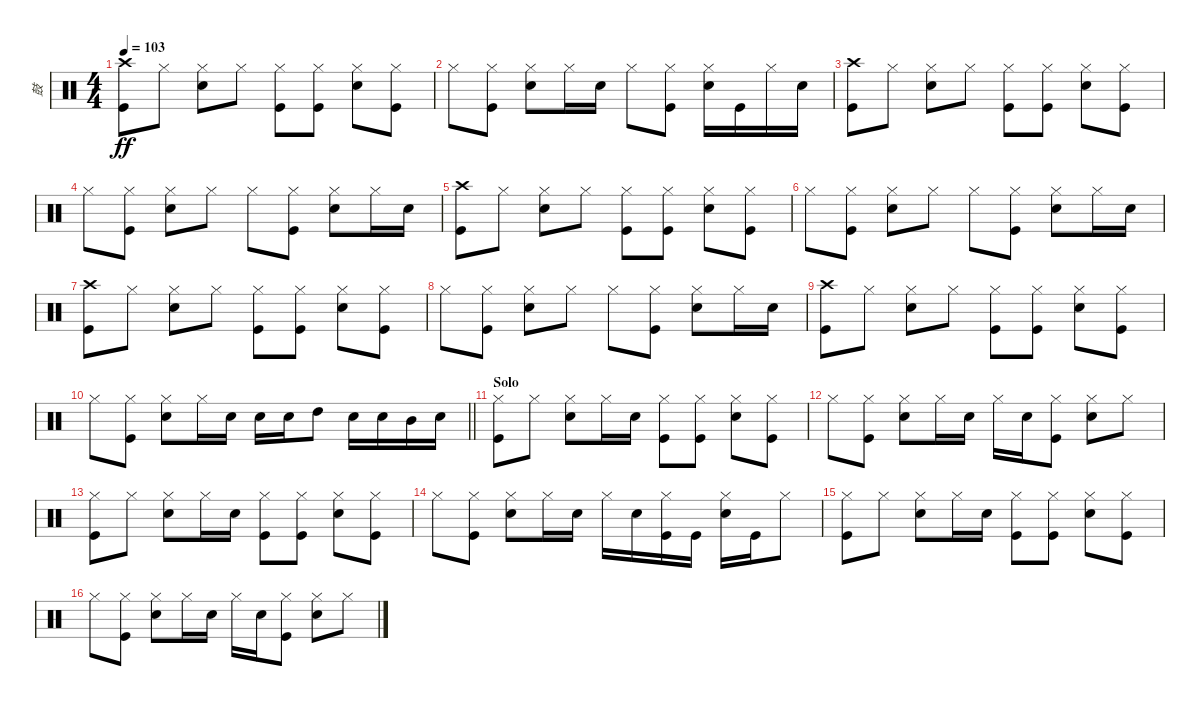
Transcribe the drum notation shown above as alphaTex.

\track ("鼓" "鼓") {instrument percussion}
\staff {score}
\articulation defaults
\ts (4 4)
\tempo 103
\clef neutral
\ks c
("Crash high (hit)" "Kick (hit)").8{dy ff} "Hi-Hat (closed)".8 ("Hi-Hat (closed)" "Snare (hit) 2").8 "Hi-Hat (closed)".8 ("Hi-Hat (closed)" "Kick (hit)").8 ("Hi-Hat (closed)" "Kick (hit)").8 ("Hi-Hat (closed)" "Snare (hit) 2").8 ("Hi-Hat (closed)" "Kick (hit)").8 |
"Hi-Hat (closed)".8 ("Hi-Hat (closed)" "Kick (hit)").8 ("Hi-Hat (closed)" "Snare (hit) 2").8 "Hi-Hat (closed)".16 "Snare (hit) 2".16 "Hi-Hat (closed)".8 ("Hi-Hat (closed)" "Kick (hit)").8 ("Hi-Hat (closed)" "Snare (hit) 2").16 "Kick (hit)".16 "Hi-Hat (closed)".16 "Snare (hit) 2".16 |
("Crash high (hit)" "Kick (hit)").8 "Hi-Hat (closed)".8 ("Hi-Hat (closed)" "Snare (hit) 2").8 "Hi-Hat (closed)".8 ("Hi-Hat (closed)" "Kick (hit)").8 ("Hi-Hat (closed)" "Kick (hit)").8 ("Hi-Hat (closed)" "Snare (hit) 2").8 ("Hi-Hat (closed)" "Kick (hit)").8 |
"Hi-Hat (closed)".8 ("Hi-Hat (closed)" "Kick (hit)").8 ("Hi-Hat (closed)" "Snare (hit) 2").8 "Hi-Hat (closed)".8 "Hi-Hat (closed)".8 ("Hi-Hat (closed)" "Kick (hit)").8 ("Hi-Hat (closed)" "Snare (hit) 2").8 "Hi-Hat (closed)".16 "Snare (hit) 2".16 |
("Crash high (hit)" "Kick (hit)").8 "Hi-Hat (closed)".8 ("Hi-Hat (closed)" "Snare (hit) 2").8 "Hi-Hat (closed)".8 ("Hi-Hat (closed)" "Kick (hit)").8 ("Hi-Hat (closed)" "Kick (hit)").8 ("Hi-Hat (closed)" "Snare (hit) 2").8 ("Hi-Hat (closed)" "Kick (hit)").8 |
"Hi-Hat (closed)".8 ("Hi-Hat (closed)" "Kick (hit)").8 ("Hi-Hat (closed)" "Snare (hit) 2").8 "Hi-Hat (closed)".8 "Hi-Hat (closed)".8 ("Hi-Hat (closed)" "Kick (hit)").8 ("Hi-Hat (closed)" "Snare (hit) 2").8 "Hi-Hat (closed)".16 "Snare (hit) 2".16 |
("Crash high (hit)" "Kick (hit)").8 "Hi-Hat (closed)".8 ("Hi-Hat (closed)" "Snare (hit) 2").8 "Hi-Hat (closed)".8 ("Hi-Hat (closed)" "Kick (hit)").8 ("Hi-Hat (closed)" "Kick (hit)").8 ("Hi-Hat (closed)" "Snare (hit) 2").8 ("Hi-Hat (closed)" "Kick (hit)").8 |
"Hi-Hat (closed)".8 ("Hi-Hat (closed)" "Kick (hit)").8 ("Hi-Hat (closed)" "Snare (hit) 2").8 "Hi-Hat (closed)".8 "Hi-Hat (closed)".8 ("Hi-Hat (closed)" "Kick (hit)").8 ("Hi-Hat (closed)" "Snare (hit) 2").8 "Hi-Hat (closed)".16 "Snare (hit) 2".16 |
("Crash high (hit)" "Kick (hit)").8 "Hi-Hat (closed)".8 ("Hi-Hat (closed)" "Snare (hit) 2").8 "Hi-Hat (closed)".8 ("Hi-Hat (closed)" "Kick (hit)").8 ("Hi-Hat (closed)" "Kick (hit)").8 ("Hi-Hat (closed)" "Snare (hit) 2").8 ("Hi-Hat (closed)" "Kick (hit)").8 |
\barLineRight lightlight "Hi-Hat (closed)".8
("Hi-Hat (closed)" "Kick (hit)").8 ("Hi-Hat (closed)" "Snare (hit) 2").8 "Hi-Hat (closed)".16 "Snare (hit) 2".16 "Snare (hit) 2".16 "Snare (hit) 2".16 "High Tom (hit)".8 "Snare (hit) 2".16 "Snare (hit) 2".16 "Mid Tom (hit)".16 "Snare (hit) 2".16 |
\section ("" "Solo")
("Hi-Hat (closed)" "Kick (hit)").8 "Hi-Hat (closed)".8 ("Hi-Hat (closed)" "Snare (hit) 2").8 "Hi-Hat (closed)".16 "Snare (hit) 2".16 ("Hi-Hat (closed)" "Kick (hit)").8 ("Hi-Hat (closed)" "Kick (hit)").8 ("Hi-Hat (closed)" "Snare (hit) 2").8 ("Hi-Hat (closed)" "Kick (hit)").8 |
"Hi-Hat (closed)".8 ("Hi-Hat (closed)" "Kick (hit)").8 ("Hi-Hat (closed)" "Snare (hit) 2").8 "Hi-Hat (closed)".16 "Snare (hit) 2".16 "Hi-Hat (closed)".16 "Snare (hit) 2".16 ("Hi-Hat (closed)" "Kick (hit)").8 ("Hi-Hat (closed)" "Snare (hit) 2").8 "Hi-Hat (closed)".8 |
("Hi-Hat (closed)" "Kick (hit)").8 "Hi-Hat (closed)".8 ("Hi-Hat (closed)" "Snare (hit) 2").8 "Hi-Hat (closed)".16 "Snare (hit) 2".16 ("Hi-Hat (closed)" "Kick (hit)").8 ("Hi-Hat (closed)" "Kick (hit)").8 ("Hi-Hat (closed)" "Snare (hit) 2").8 ("Hi-Hat (closed)" "Kick (hit)").8 |
"Hi-Hat (closed)".8 ("Hi-Hat (closed)" "Kick (hit)").8 ("Hi-Hat (closed)" "Snare (hit) 2").8 "Hi-Hat (closed)".16 "Snare (hit) 2".16 "Hi-Hat (closed)".16 "Snare (hit) 2".16 ("Hi-Hat (closed)" "Kick (hit)").16 "Kick (hit)".16 ("Hi-Hat (closed)" "Snare (hit) 2").16 "Kick (hit)".16 "Hi-Hat (closed)".8 |
("Hi-Hat (closed)" "Kick (hit)").8 "Hi-Hat (closed)".8 ("Hi-Hat (closed)" "Snare (hit) 2").8 "Hi-Hat (closed)".16 "Snare (hit) 2".16 ("Hi-Hat (closed)" "Kick (hit)").8 ("Hi-Hat (closed)" "Kick (hit)").8 ("Hi-Hat (closed)" "Snare (hit) 2").8 ("Hi-Hat (closed)" "Kick (hit)").8 |
"Hi-Hat (closed)".8 ("Hi-Hat (closed)" "Kick (hit)").8 ("Hi-Hat (closed)" "Snare (hit) 2").8 "Hi-Hat (closed)".16 "Snare (hit) 2".16 "Hi-Hat (closed)".16 "Snare (hit) 2".16 ("Hi-Hat (closed)" "Kick (hit)").8 ("Hi-Hat (closed)" "Snare (hit) 2").8 "Hi-Hat (closed)".8
